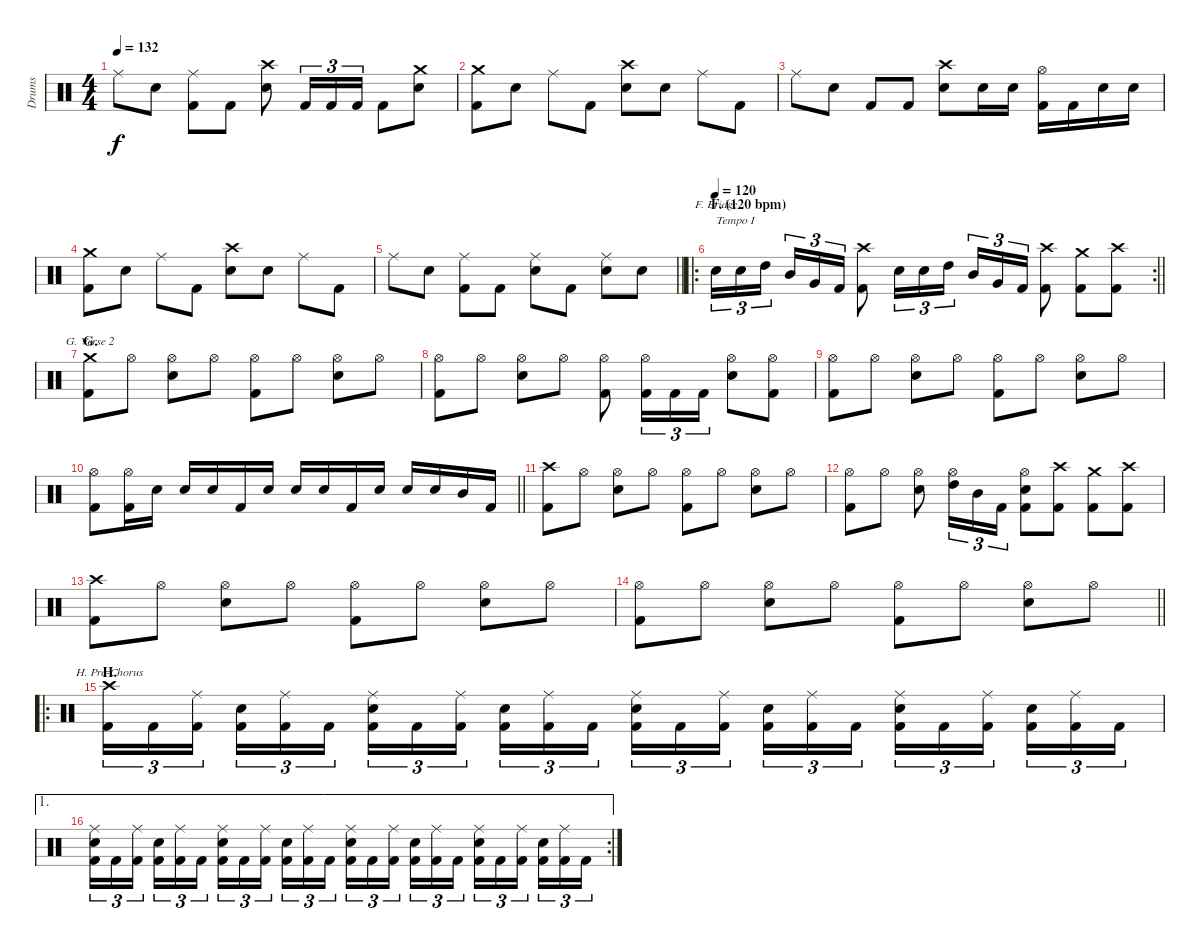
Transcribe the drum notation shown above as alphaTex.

\track ("Drums" "Drums") {instrument percussion}
\staff {score}
\articulation defaults
\chord ("F. Bridge")
\chord ("G. Verse 2")
\chord ("H. Pre-Chorus")
\ts (4 4)
\tempo 132
\clef neutral
\ks c "Ride (middle)".8{dy f} "Snare (hit) 2".8
("Ride (middle)" "Kick (hit) 2").8 "Kick (hit) 2".8 ("Crash high (hit)" "Snare (hit) 2").8 "Kick (hit) 2".16{tu (3 2)} "Kick (hit) 2".16{tu (3 2)} "Kick (hit) 2".16{tu (3 2)} "Kick (hit) 2".8 ("Crash medium (hit)" "Snare (hit) 2").8 |
("Crash medium (hit)" "Kick (hit) 2").8 "Snare (hit) 2".8 "Ride (middle)".8 "Kick (hit) 2".8 ("Crash high (hit)" "Snare (hit) 2").8 "Snare (hit) 2".8 "Ride (middle)".8 "Kick (hit) 2".8 |
"Ride (middle)".8 "Snare (hit) 2".8 "Kick (hit) 2".8 "Kick (hit) 2".8 ("Crash high (hit)" "Snare (hit) 2").8 "Snare (hit) 2".16 "Snare (hit) 2".16 ("Hi-Hat (open)" "Kick (hit) 2").16 "Kick (hit) 2".16 "Snare (hit) 2".16 "Snare (hit) 2".16 |
("Crash medium (hit)" "Kick (hit) 2").8 "Snare (hit) 2".8 "Ride (middle)".8 "Kick (hit) 2".8 ("Crash high (hit)" "Snare (hit) 2").8 "Snare (hit) 2".8 "Ride (middle)".8 "Kick (hit) 2".8 |
\barLineRight lightlight "Ride (middle)".8 "Snare (hit) 2".8
("Ride (middle)" "Kick (hit) 2").8 "Kick (hit) 2".8 ("Ride (middle)" "Snare (hit) 2").8 "Kick (hit) 2".8 ("Ride (middle)" "Snare (hit) 2").8 "Snare (hit) 2".8 |
\ro
\rc 2
\section ("" "F. (120 bpm)")
\tempo 120
\barLineRight lightlight "Snare (hit) 2".16{tu (3 2) ch "F. Bridge" txt "Tempo I"} "Snare (hit) 2".16{tu (3 2)} "High Tom (hit)".16{tu (3 2)} "Mid Tom (hit)".16{tu (3 2)} "Very Low Tom (hit)".16{tu (3 2)} "Kick (hit) 2".16{tu (3 2)}
("Crash high (hit)" "Kick (hit) 2").8 "Snare (hit) 2".16{tu (3 2)} "Snare (hit) 2".16{tu (3 2)} "High Tom (hit)".16{tu (3 2)} "Mid Tom (hit)".16{tu (3 2)} "Very Low Tom (hit)".16{tu (3 2)} "Kick (hit) 2".16{tu (3 2)} ("Crash high (hit)" "Kick (hit) 2").8 ("Crash medium (hit)" "Kick (hit) 2").8 ("Crash high (hit)" "Kick (hit) 2").8 |
\section ("" "G.")
("Crash medium (hit)" "Kick (hit) 2").8{ch "G. Verse 2"} "Hi-Hat (open)".8 ("Hi-Hat (open)" "Snare (hit) 2").8 "Hi-Hat (open)".8 ("Hi-Hat (open)" "Kick (hit) 2").8 "Hi-Hat (open)".8 ("Hi-Hat (open)" "Snare (hit) 2").8 "Hi-Hat (open)".8 |
("Hi-Hat (open)" "Kick (hit) 2").8 "Hi-Hat (open)".8 ("Hi-Hat (open)" "Snare (hit) 2").8 "Hi-Hat (open)".8 ("Hi-Hat (open)" "Kick (hit) 2").8 ("Hi-Hat (open)" "Kick (hit) 2").16{tu (3 2)} "Kick (hit) 2".16{tu (3 2)} "Kick (hit) 2".16{tu (3 2)} ("Hi-Hat (open)" "Snare (hit) 2").8 ("Hi-Hat (open)" "Kick (hit) 2").8 |
("Hi-Hat (open)" "Kick (hit) 2").8 "Hi-Hat (open)".8 ("Hi-Hat (open)" "Snare (hit) 2").8 "Hi-Hat (open)".8 ("Hi-Hat (open)" "Kick (hit) 2").8 "Hi-Hat (open)".8 ("Hi-Hat (open)" "Snare (hit) 2").8 "Hi-Hat (open)".8 |
\barLineRight lightlight
("Hi-Hat (open)" "Kick (hit) 2").8 ("Hi-Hat (open)" "Kick (hit) 2").16 "Snare (hit) 2".16 "Snare (hit) 2".16 "Snare (hit) 2".16 "Kick (hit) 2".16 "Snare (hit) 2".16 "Snare (hit) 2".16 "Snare (hit) 2".16 "Kick (hit) 2".16 "Snare (hit) 2".16 "Snare (hit) 2".16 "Snare (hit) 2".16 "Mid Tom (hit)".16 "Kick (hit) 2".16 |
("Crash high (hit)" "Kick (hit) 2").8 "Hi-Hat (open)".8 ("Hi-Hat (open)" "Snare (hit) 2").8 "Hi-Hat (open)".8 ("Hi-Hat (open)" "Kick (hit) 2").8 "Hi-Hat (open)".8 ("Hi-Hat (open)" "Snare (hit) 2").8 "Hi-Hat (open)".8 |
("Hi-Hat (open)" "Kick (hit) 2").8 "Hi-Hat (open)".8 ("Hi-Hat (open)" "Snare (hit) 2").8 ("Hi-Hat (open)" "High Tom (hit)").16{tu (3 2)} "Mid Tom (hit)".16{tu (3 2)} "Kick (hit) 2".16{tu (3 2)} ("Hi-Hat (open)" "Snare (hit) 2" "Kick (hit) 2").8 ("Crash high (hit)" "Kick (hit) 2").8 ("Crash medium (hit)" "Kick (hit) 2").8 ("Crash high (hit)" "Kick (hit) 2").8 |
("Crash high (hit)" "Kick (hit) 2").8 "Hi-Hat (open)".8 ("Hi-Hat (open)" "Snare (hit) 2").8 "Hi-Hat (open)".8 ("Hi-Hat (open)" "Kick (hit) 2").8 "Hi-Hat (open)".8 ("Hi-Hat (open)" "Snare (hit) 2").8 "Hi-Hat (open)".8 |
\barLineRight lightlight
("Hi-Hat (open)" "Kick (hit) 2").8 "Hi-Hat (open)".8 ("Hi-Hat (open)" "Snare (hit) 2").8 "Hi-Hat (open)".8 ("Hi-Hat (open)" "Kick (hit) 2").8 "Hi-Hat (open)".8 ("Hi-Hat (open)" "Snare (hit) 2").8 "Hi-Hat (open)".8 |
\ro
\section ("" "H.")
("Crash high (hit)" "Kick (hit) 2").16{tu (3 2) ch "H. Pre-Chorus"} "Kick (hit) 2".16{tu (3 2)} ("Ride (middle)" "Kick (hit) 2").16{tu (3 2)} ("Snare (hit) 2" "Kick (hit) 2").16{tu (3 2)} ("Ride (middle)" "Kick (hit) 2").16{tu (3 2)} "Kick (hit) 2".16{tu (3 2)} ("Ride (middle)" "Snare (hit) 2" "Kick (hit) 2").16{tu (3 2)} "Kick (hit) 2".16{tu (3 2)} ("Ride (middle)" "Kick (hit) 2").16{tu (3 2)} ("Snare (hit) 2" "Kick (hit) 2").16{tu (3 2)} ("Ride (middle)" "Kick (hit) 2").16{tu (3 2)} "Kick (hit) 2".16{tu (3 2)} ("Ride (middle)" "Snare (hit) 2" "Kick (hit) 2").16{tu (3 2)} "Kick (hit) 2".16{tu (3 2)} ("Ride (middle)" "Kick (hit) 2").16{tu (3 2)} ("Snare (hit) 2" "Kick (hit) 2").16{tu (3 2)} ("Ride (middle)" "Kick (hit) 2").16{tu (3 2)} "Kick (hit) 2".16{tu (3 2)} ("Ride (middle)" "Snare (hit) 2" "Kick (hit) 2").16{tu (3 2)} "Kick (hit) 2".16{tu (3 2)} ("Ride (middle)" "Kick (hit) 2").16{tu (3 2)} ("Snare (hit) 2" "Kick (hit) 2").16{tu (3 2)} ("Ride (middle)" "Kick (hit) 2").16{tu (3 2)} "Kick (hit) 2".16{tu (3 2)} |
\ae 1
\rc 2
("Ride (middle)" "Snare (hit) 2" "Kick (hit) 2").16{tu (3 2)} "Kick (hit) 2".16{tu (3 2)} ("Ride (middle)" "Kick (hit) 2").16{tu (3 2)} ("Snare (hit) 2" "Kick (hit) 2").16{tu (3 2)} ("Ride (middle)" "Kick (hit) 2").16{tu (3 2)} "Kick (hit) 2".16{tu (3 2)} ("Ride (middle)" "Snare (hit) 2" "Kick (hit) 2").16{tu (3 2)} "Kick (hit) 2".16{tu (3 2)} ("Ride (middle)" "Kick (hit) 2").16{tu (3 2)} ("Snare (hit) 2" "Kick (hit) 2").16{tu (3 2)} ("Ride (middle)" "Kick (hit) 2").16{tu (3 2)} "Kick (hit) 2".16{tu (3 2)} ("Ride (middle)" "Snare (hit) 2" "Kick (hit) 2").16{tu (3 2)} "Kick (hit) 2".16{tu (3 2)} ("Ride (middle)" "Kick (hit) 2").16{tu (3 2)} ("Snare (hit) 2" "Kick (hit) 2").16{tu (3 2)} ("Ride (middle)" "Kick (hit) 2").16{tu (3 2)} "Kick (hit) 2".16{tu (3 2)} ("Ride (middle)" "Snare (hit) 2" "Kick (hit) 2").16{tu (3 2)} "Kick (hit) 2".16{tu (3 2)} ("Ride (middle)" "Kick (hit) 2").16{tu (3 2)} ("Snare (hit) 2" "Kick (hit) 2").16{tu (3 2)} ("Ride (middle)" "Kick (hit) 2").16{tu (3 2)} "Kick (hit) 2".16{tu (3 2)}
